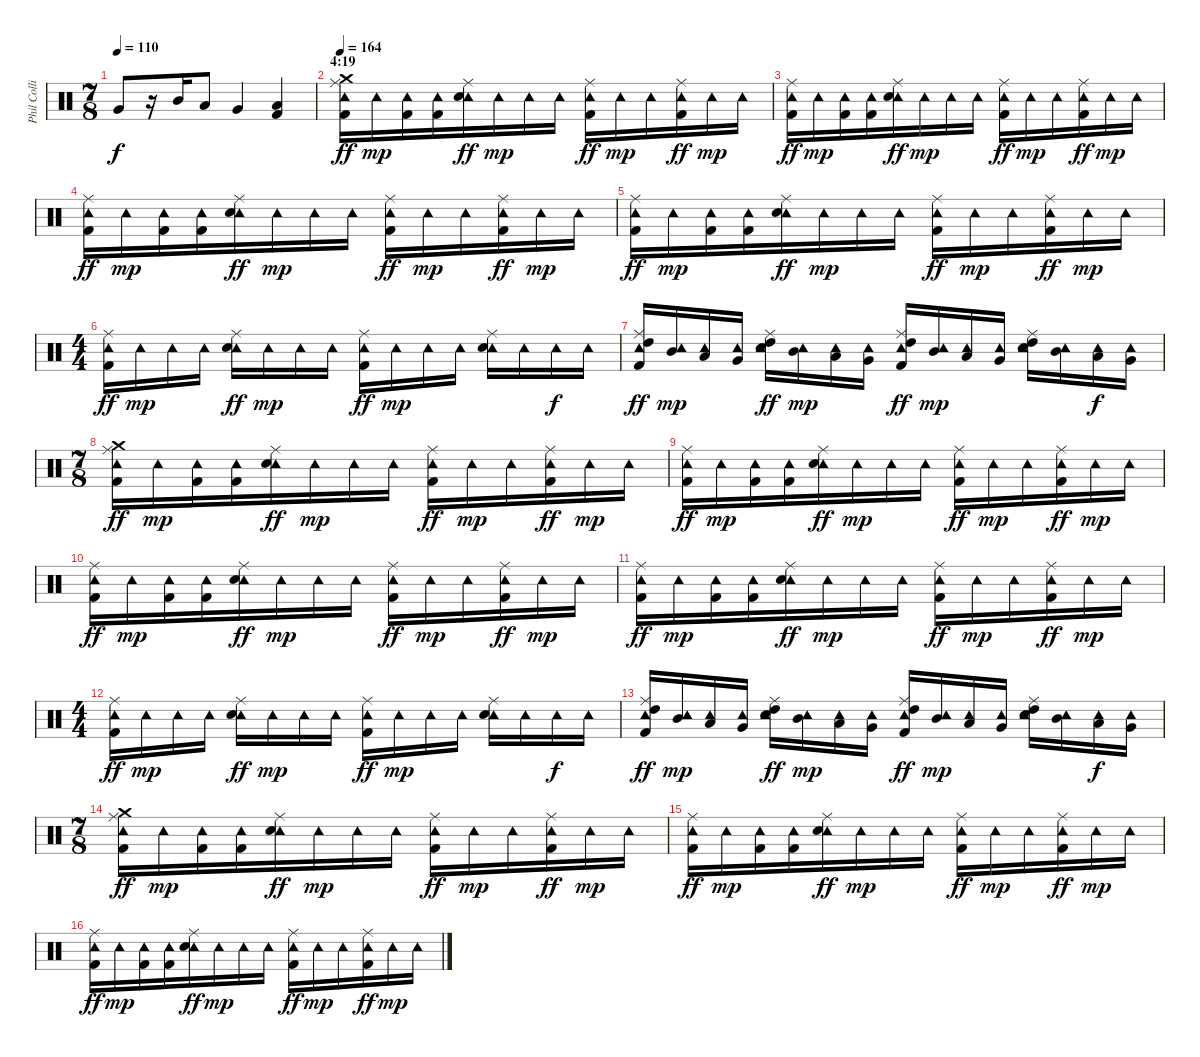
\track ("Phil Collins (drums)" "Phil Colli") {instrument percussion}
\staff {score}
\articulation defaults
\ts (7 8)
\tempo 110
\clef neutral
\ks c "Very Low Tom (hit)".8{dy f}
r.16 "Mid Tom (hit)".16 "Low Tom (hit)".8 "Very Low Tom (hit)".4 ("Low Floor Tom (hit)" "Kick (hit) 2").4 |
\section ("" "4:19")
\tempo 164
("Tambourine (hit)" "Ride (middle)" "Crash medium (hit)" "Kick (hit) 2").16{dy ff} "Tambourine (hit)".16{dy mp} ("Tambourine (hit)" "Kick (hit) 2").16 ("Tambourine (hit)" "Kick (hit) 2").16 ("Tambourine (hit)" "Ride (middle)" "Electric Snare (hit)").16{dy ff} "Tambourine (hit)".16{dy mp} "Tambourine (hit)".16 "Tambourine (hit)".16 ("Tambourine (hit)" "Ride (middle)" "Kick (hit) 2").16{dy ff} "Tambourine (hit)".16{dy mp} "Tambourine (hit)".16 ("Tambourine (hit)" "Ride (middle)" "Kick (hit) 2").16{dy ff} "Tambourine (hit)".16{dy mp} "Tambourine (hit)".16 |
("Tambourine (hit)" "Ride (middle)" "Kick (hit) 2").16{dy ff} "Tambourine (hit)".16{dy mp} ("Tambourine (hit)" "Kick (hit) 2").16 ("Tambourine (hit)" "Kick (hit) 2").16 ("Tambourine (hit)" "Ride (middle)" "Electric Snare (hit)").16{dy ff} "Tambourine (hit)".16{dy mp} "Tambourine (hit)".16 "Tambourine (hit)".16 ("Tambourine (hit)" "Ride (middle)" "Kick (hit) 2").16{dy ff} "Tambourine (hit)".16{dy mp} "Tambourine (hit)".16 ("Tambourine (hit)" "Ride (middle)" "Kick (hit) 2").16{dy ff} "Tambourine (hit)".16{dy mp} "Tambourine (hit)".16 |
("Tambourine (hit)" "Ride (middle)" "Kick (hit) 2").16{dy ff} "Tambourine (hit)".16{dy mp} ("Tambourine (hit)" "Kick (hit) 2").16 ("Tambourine (hit)" "Kick (hit) 2").16 ("Tambourine (hit)" "Ride (middle)" "Electric Snare (hit)").16{dy ff} "Tambourine (hit)".16{dy mp} "Tambourine (hit)".16 "Tambourine (hit)".16 ("Tambourine (hit)" "Ride (middle)" "Kick (hit) 2").16{dy ff} "Tambourine (hit)".16{dy mp} "Tambourine (hit)".16 ("Tambourine (hit)" "Ride (middle)" "Kick (hit) 2").16{dy ff} "Tambourine (hit)".16{dy mp} "Tambourine (hit)".16 |
("Tambourine (hit)" "Ride (middle)" "Kick (hit) 2").16{dy ff} "Tambourine (hit)".16{dy mp} ("Tambourine (hit)" "Kick (hit) 2").16 ("Tambourine (hit)" "Kick (hit) 2").16 ("Tambourine (hit)" "Ride (middle)" "Electric Snare (hit)").16{dy ff} "Tambourine (hit)".16{dy mp} "Tambourine (hit)".16 "Tambourine (hit)".16 ("Tambourine (hit)" "Ride (middle)" "Kick (hit) 2").16{dy ff} "Tambourine (hit)".16{dy mp} "Tambourine (hit)".16 ("Tambourine (hit)" "Ride (middle)" "Kick (hit) 2").16{dy ff} "Tambourine (hit)".16{dy mp} "Tambourine (hit)".16 |
\ts (4 4)
("Tambourine (hit)" "Ride (middle)" "Kick (hit) 2").16{dy ff} "Tambourine (hit)".16{dy mp} "Tambourine (hit)".16 "Tambourine (hit)".16 ("Tambourine (hit)" "Ride (middle)" "Electric Snare (hit)").16{dy ff} "Tambourine (hit)".16{dy mp} "Tambourine (hit)".16 "Tambourine (hit)".16 ("Tambourine (hit)" "Ride (middle)" "Kick (hit) 2").16{dy ff} "Tambourine (hit)".16{dy mp} "Tambourine (hit)".16 "Tambourine (hit)".16 ("Tambourine (hit)" "Ride (middle)" "Electric Snare (hit)").16 "Tambourine (hit)".16 "Tambourine (hit)".16{dy f} "Tambourine (hit)".16 |
("Tambourine (hit)" "Ride (middle)" "High Tom (hit)" "Kick (hit) 2").16{dy ff} ("Tambourine (hit)" "Mid Tom (hit)").16{dy mp} ("Tambourine (hit)" "Low Tom (hit)").16 ("Tambourine (hit)" "Very Low Tom (hit)").16 ("Tambourine (hit)" "Ride (middle)" "High Tom (hit)" "Electric Snare (hit)").16{dy ff} ("Tambourine (hit)" "Mid Tom (hit)").16{dy mp} ("Tambourine (hit)" "Low Tom (hit)").16 ("Tambourine (hit)" "Very Low Tom (hit)").16 ("Tambourine (hit)" "Ride (middle)" "High Tom (hit)" "Kick (hit) 2").16{dy ff} ("Tambourine (hit)" "Mid Tom (hit)").16{dy mp} ("Tambourine (hit)" "Low Tom (hit)").16 ("Tambourine (hit)" "Very Low Tom (hit)").16 ("Tambourine (hit)" "Ride (middle)" "High Tom (hit)" "Electric Snare (hit)").16 ("Tambourine (hit)" "Mid Tom (hit)").16 ("Tambourine (hit)" "Low Tom (hit)").16{dy f} ("Tambourine (hit)" "Very Low Tom (hit)").16 |
\ts (7 8)
("Tambourine (hit)" "Ride (middle)" "Crash medium (hit)" "Kick (hit) 2").16{dy ff} "Tambourine (hit)".16{dy mp} ("Tambourine (hit)" "Kick (hit) 2").16 ("Tambourine (hit)" "Kick (hit) 2").16 ("Tambourine (hit)" "Ride (middle)" "Electric Snare (hit)").16{dy ff} "Tambourine (hit)".16{dy mp} "Tambourine (hit)".16 "Tambourine (hit)".16 ("Tambourine (hit)" "Ride (middle)" "Kick (hit) 2").16{dy ff} "Tambourine (hit)".16{dy mp} "Tambourine (hit)".16 ("Tambourine (hit)" "Ride (middle)" "Kick (hit) 2").16{dy ff} "Tambourine (hit)".16{dy mp} "Tambourine (hit)".16 |
("Tambourine (hit)" "Ride (middle)" "Kick (hit) 2").16{dy ff} "Tambourine (hit)".16{dy mp} ("Tambourine (hit)" "Kick (hit) 2").16 ("Tambourine (hit)" "Kick (hit) 2").16 ("Tambourine (hit)" "Ride (middle)" "Electric Snare (hit)").16{dy ff} "Tambourine (hit)".16{dy mp} "Tambourine (hit)".16 "Tambourine (hit)".16 ("Tambourine (hit)" "Ride (middle)" "Kick (hit) 2").16{dy ff} "Tambourine (hit)".16{dy mp} "Tambourine (hit)".16 ("Tambourine (hit)" "Ride (middle)" "Kick (hit) 2").16{dy ff} "Tambourine (hit)".16{dy mp} "Tambourine (hit)".16 |
("Tambourine (hit)" "Ride (middle)" "Kick (hit) 2").16{dy ff} "Tambourine (hit)".16{dy mp} ("Tambourine (hit)" "Kick (hit) 2").16 ("Tambourine (hit)" "Kick (hit) 2").16 ("Tambourine (hit)" "Ride (middle)" "Electric Snare (hit)").16{dy ff} "Tambourine (hit)".16{dy mp} "Tambourine (hit)".16 "Tambourine (hit)".16 ("Tambourine (hit)" "Ride (middle)" "Kick (hit) 2").16{dy ff} "Tambourine (hit)".16{dy mp} "Tambourine (hit)".16 ("Tambourine (hit)" "Ride (middle)" "Kick (hit) 2").16{dy ff} "Tambourine (hit)".16{dy mp} "Tambourine (hit)".16 |
("Tambourine (hit)" "Ride (middle)" "Kick (hit) 2").16{dy ff} "Tambourine (hit)".16{dy mp} ("Tambourine (hit)" "Kick (hit) 2").16 ("Tambourine (hit)" "Kick (hit) 2").16 ("Tambourine (hit)" "Ride (middle)" "Electric Snare (hit)").16{dy ff} "Tambourine (hit)".16{dy mp} "Tambourine (hit)".16 "Tambourine (hit)".16 ("Tambourine (hit)" "Ride (middle)" "Kick (hit) 2").16{dy ff} "Tambourine (hit)".16{dy mp} "Tambourine (hit)".16 ("Tambourine (hit)" "Ride (middle)" "Kick (hit) 2").16{dy ff} "Tambourine (hit)".16{dy mp} "Tambourine (hit)".16 |
\ts (4 4)
("Tambourine (hit)" "Ride (middle)" "Kick (hit) 2").16{dy ff} "Tambourine (hit)".16{dy mp} "Tambourine (hit)".16 "Tambourine (hit)".16 ("Tambourine (hit)" "Ride (middle)" "Electric Snare (hit)").16{dy ff} "Tambourine (hit)".16{dy mp} "Tambourine (hit)".16 "Tambourine (hit)".16 ("Tambourine (hit)" "Ride (middle)" "Kick (hit) 2").16{dy ff} "Tambourine (hit)".16{dy mp} "Tambourine (hit)".16 "Tambourine (hit)".16 ("Tambourine (hit)" "Ride (middle)" "Electric Snare (hit)").16 "Tambourine (hit)".16 "Tambourine (hit)".16{dy f} "Tambourine (hit)".16 |
("Tambourine (hit)" "Ride (middle)" "High Tom (hit)" "Kick (hit) 2").16{dy ff} ("Tambourine (hit)" "Mid Tom (hit)").16{dy mp} ("Tambourine (hit)" "Low Tom (hit)").16 ("Tambourine (hit)" "Very Low Tom (hit)").16 ("Tambourine (hit)" "Ride (middle)" "High Tom (hit)" "Electric Snare (hit)").16{dy ff} ("Tambourine (hit)" "Mid Tom (hit)").16{dy mp} ("Tambourine (hit)" "Low Tom (hit)").16 ("Tambourine (hit)" "Very Low Tom (hit)").16 ("Tambourine (hit)" "Ride (middle)" "High Tom (hit)" "Kick (hit) 2").16{dy ff} ("Tambourine (hit)" "Mid Tom (hit)").16{dy mp} ("Tambourine (hit)" "Low Tom (hit)").16 ("Tambourine (hit)" "Very Low Tom (hit)").16 ("Tambourine (hit)" "Ride (middle)" "High Tom (hit)" "Electric Snare (hit)").16 ("Tambourine (hit)" "Mid Tom (hit)").16 ("Tambourine (hit)" "Low Tom (hit)").16{dy f} ("Tambourine (hit)" "Very Low Tom (hit)").16 |
\ts (7 8)
("Tambourine (hit)" "Ride (middle)" "Crash medium (hit)" "Kick (hit) 2").16{dy ff} "Tambourine (hit)".16{dy mp} ("Tambourine (hit)" "Kick (hit) 2").16 ("Tambourine (hit)" "Kick (hit) 2").16 ("Tambourine (hit)" "Ride (middle)" "Electric Snare (hit)").16{dy ff} "Tambourine (hit)".16{dy mp} "Tambourine (hit)".16 "Tambourine (hit)".16 ("Tambourine (hit)" "Ride (middle)" "Kick (hit) 2").16{dy ff} "Tambourine (hit)".16{dy mp} "Tambourine (hit)".16 ("Tambourine (hit)" "Ride (middle)" "Kick (hit) 2").16{dy ff} "Tambourine (hit)".16{dy mp} "Tambourine (hit)".16 |
("Tambourine (hit)" "Ride (middle)" "Kick (hit) 2").16{dy ff} "Tambourine (hit)".16{dy mp} ("Tambourine (hit)" "Kick (hit) 2").16 ("Tambourine (hit)" "Kick (hit) 2").16 ("Tambourine (hit)" "Ride (middle)" "Electric Snare (hit)").16{dy ff} "Tambourine (hit)".16{dy mp} "Tambourine (hit)".16 "Tambourine (hit)".16 ("Tambourine (hit)" "Ride (middle)" "Kick (hit) 2").16{dy ff} "Tambourine (hit)".16{dy mp} "Tambourine (hit)".16 ("Tambourine (hit)" "Ride (middle)" "Kick (hit) 2").16{dy ff} "Tambourine (hit)".16{dy mp} "Tambourine (hit)".16 |
("Tambourine (hit)" "Ride (middle)" "Kick (hit) 2").16{dy ff} "Tambourine (hit)".16{dy mp} ("Tambourine (hit)" "Kick (hit) 2").16 ("Tambourine (hit)" "Kick (hit) 2").16 ("Tambourine (hit)" "Ride (middle)" "Electric Snare (hit)").16{dy ff} "Tambourine (hit)".16{dy mp} "Tambourine (hit)".16 "Tambourine (hit)".16 ("Tambourine (hit)" "Ride (middle)" "Kick (hit) 2").16{dy ff} "Tambourine (hit)".16{dy mp} "Tambourine (hit)".16 ("Tambourine (hit)" "Ride (middle)" "Kick (hit) 2").16{dy ff} "Tambourine (hit)".16{dy mp} "Tambourine (hit)".16
